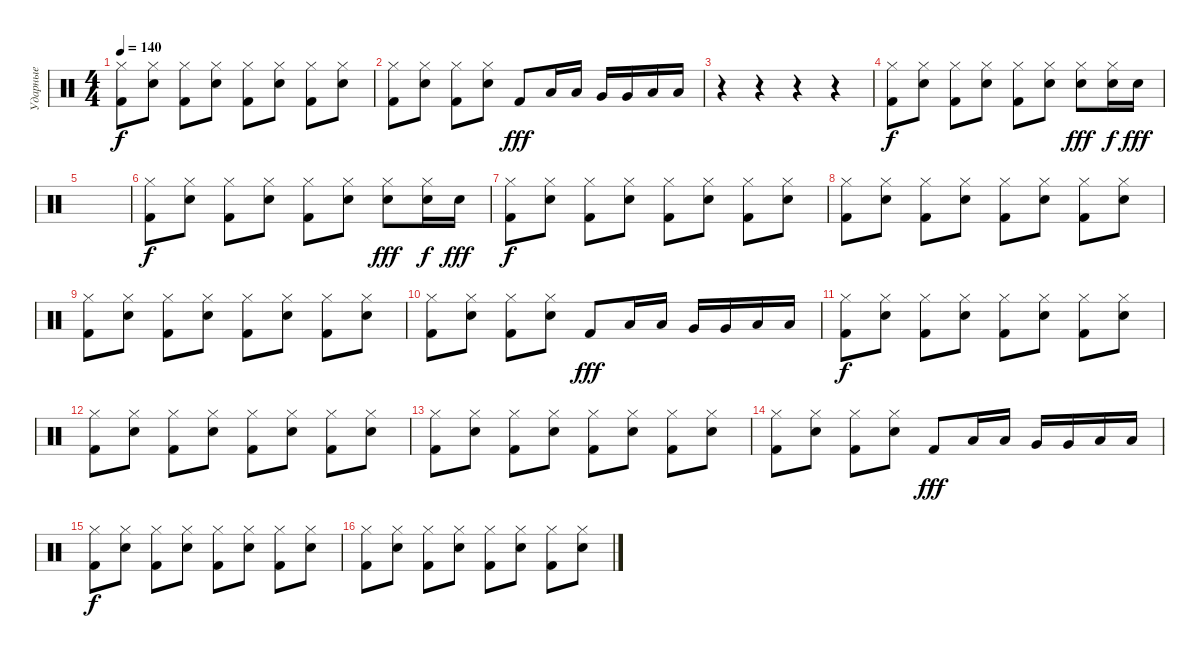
\track ("Ударные" "Ударные") {instrument percussion}
\staff {score}
\articulation defaults
\ts (4 4)
\tempo 140
\clef neutral
\ks c
("Hi-Hat (closed)" "Kick (hit) 2").8{dy f} ("Hi-Hat (closed)" "Electric Snare (hit)").8 ("Hi-Hat (closed)" "Kick (hit) 2").8 ("Hi-Hat (closed)" "Electric Snare (hit)").8 ("Hi-Hat (closed)" "Kick (hit) 2").8 ("Hi-Hat (closed)" "Electric Snare (hit)").8 ("Hi-Hat (closed)" "Kick (hit) 2").8 ("Hi-Hat (closed)" "Electric Snare (hit)").8 |
("Hi-Hat (closed)" "Kick (hit) 2").8 ("Hi-Hat (closed)" "Electric Snare (hit)").8 ("Hi-Hat (closed)" "Kick (hit) 2").8 ("Hi-Hat (closed)" "Electric Snare (hit)").8 "Kick (hit) 2".8{dy fff} "Low Tom (hit)".16 "Low Tom (hit)".16 "Very Low Tom (hit)".16 "Very Low Tom (hit)".16 "Low Floor Tom (hit)".16 "Low Floor Tom (hit)".16 |
r.4 r.4 r.4 r.4 |
("Hi-Hat (closed)" "Kick (hit) 2").8{dy f} ("Hi-Hat (closed)" "Electric Snare (hit)").8 ("Hi-Hat (closed)" "Kick (hit) 2").8 ("Hi-Hat (closed)" "Electric Snare (hit)").8 ("Hi-Hat (closed)" "Kick (hit) 2").8 ("Hi-Hat (closed)" "Electric Snare (hit)").8 ("Hi-Hat (closed)" "Electric Snare (hit)").8{dy fff} ("Hi-Hat (closed)" "Electric Snare (hit)").16{dy f} "Electric Snare (hit)".16{dy fff} |
|
("Hi-Hat (closed)" "Kick (hit) 2").8{dy f} ("Hi-Hat (closed)" "Electric Snare (hit)").8 ("Hi-Hat (closed)" "Kick (hit) 2").8 ("Hi-Hat (closed)" "Electric Snare (hit)").8 ("Hi-Hat (closed)" "Kick (hit) 2").8 ("Hi-Hat (closed)" "Electric Snare (hit)").8 ("Hi-Hat (closed)" "Electric Snare (hit)").8{dy fff} ("Hi-Hat (closed)" "Electric Snare (hit)").16{dy f} "Electric Snare (hit)".16{dy fff} |
("Hi-Hat (closed)" "Kick (hit) 2").8{dy f} ("Hi-Hat (closed)" "Electric Snare (hit)").8 ("Hi-Hat (closed)" "Kick (hit) 2").8 ("Hi-Hat (closed)" "Electric Snare (hit)").8 ("Hi-Hat (closed)" "Kick (hit) 2").8 ("Hi-Hat (closed)" "Electric Snare (hit)").8 ("Hi-Hat (closed)" "Kick (hit) 2").8 ("Hi-Hat (closed)" "Electric Snare (hit)").8 |
("Hi-Hat (closed)" "Kick (hit) 2").8 ("Hi-Hat (closed)" "Electric Snare (hit)").8 ("Hi-Hat (closed)" "Kick (hit) 2").8 ("Hi-Hat (closed)" "Electric Snare (hit)").8 ("Hi-Hat (closed)" "Kick (hit) 2").8 ("Hi-Hat (closed)" "Electric Snare (hit)").8 ("Hi-Hat (closed)" "Kick (hit) 2").8 ("Hi-Hat (closed)" "Electric Snare (hit)").8 |
("Hi-Hat (closed)" "Kick (hit) 2").8 ("Hi-Hat (closed)" "Electric Snare (hit)").8 ("Hi-Hat (closed)" "Kick (hit) 2").8 ("Hi-Hat (closed)" "Electric Snare (hit)").8 ("Hi-Hat (closed)" "Kick (hit) 2").8 ("Hi-Hat (closed)" "Electric Snare (hit)").8 ("Hi-Hat (closed)" "Kick (hit) 2").8 ("Hi-Hat (closed)" "Electric Snare (hit)").8 |
("Hi-Hat (closed)" "Kick (hit) 2").8 ("Hi-Hat (closed)" "Electric Snare (hit)").8 ("Hi-Hat (closed)" "Kick (hit) 2").8 ("Hi-Hat (closed)" "Electric Snare (hit)").8 "Kick (hit) 2".8{dy fff} "Low Tom (hit)".16 "Low Tom (hit)".16 "Very Low Tom (hit)".16 "Very Low Tom (hit)".16 "Low Floor Tom (hit)".16 "Low Floor Tom (hit)".16 |
("Hi-Hat (closed)" "Kick (hit) 2").8{dy f} ("Hi-Hat (closed)" "Electric Snare (hit)").8 ("Hi-Hat (closed)" "Kick (hit) 2").8 ("Hi-Hat (closed)" "Electric Snare (hit)").8 ("Hi-Hat (closed)" "Kick (hit) 2").8 ("Hi-Hat (closed)" "Electric Snare (hit)").8 ("Hi-Hat (closed)" "Kick (hit) 2").8 ("Hi-Hat (closed)" "Electric Snare (hit)").8 |
("Hi-Hat (closed)" "Kick (hit) 2").8 ("Hi-Hat (closed)" "Electric Snare (hit)").8 ("Hi-Hat (closed)" "Kick (hit) 2").8 ("Hi-Hat (closed)" "Electric Snare (hit)").8 ("Hi-Hat (closed)" "Kick (hit) 2").8 ("Hi-Hat (closed)" "Electric Snare (hit)").8 ("Hi-Hat (closed)" "Kick (hit) 2").8 ("Hi-Hat (closed)" "Electric Snare (hit)").8 |
("Hi-Hat (closed)" "Kick (hit) 2").8 ("Hi-Hat (closed)" "Electric Snare (hit)").8 ("Hi-Hat (closed)" "Kick (hit) 2").8 ("Hi-Hat (closed)" "Electric Snare (hit)").8 ("Hi-Hat (closed)" "Kick (hit) 2").8 ("Hi-Hat (closed)" "Electric Snare (hit)").8 ("Hi-Hat (closed)" "Kick (hit) 2").8 ("Hi-Hat (closed)" "Electric Snare (hit)").8 |
("Hi-Hat (closed)" "Kick (hit) 2").8 ("Hi-Hat (closed)" "Electric Snare (hit)").8 ("Hi-Hat (closed)" "Kick (hit) 2").8 ("Hi-Hat (closed)" "Electric Snare (hit)").8 "Kick (hit) 2".8{dy fff} "Low Tom (hit)".16 "Low Tom (hit)".16 "Very Low Tom (hit)".16 "Very Low Tom (hit)".16 "Low Floor Tom (hit)".16 "Low Floor Tom (hit)".16 |
("Hi-Hat (closed)" "Kick (hit) 2").8{dy f} ("Hi-Hat (closed)" "Electric Snare (hit)").8 ("Hi-Hat (closed)" "Kick (hit) 2").8 ("Hi-Hat (closed)" "Electric Snare (hit)").8 ("Hi-Hat (closed)" "Kick (hit) 2").8 ("Hi-Hat (closed)" "Electric Snare (hit)").8 ("Hi-Hat (closed)" "Kick (hit) 2").8 ("Hi-Hat (closed)" "Electric Snare (hit)").8 |
("Hi-Hat (closed)" "Kick (hit) 2").8 ("Hi-Hat (closed)" "Electric Snare (hit)").8 ("Hi-Hat (closed)" "Kick (hit) 2").8 ("Hi-Hat (closed)" "Electric Snare (hit)").8 ("Hi-Hat (closed)" "Kick (hit) 2").8 ("Hi-Hat (closed)" "Electric Snare (hit)").8 ("Hi-Hat (closed)" "Kick (hit) 2").8 ("Hi-Hat (closed)" "Electric Snare (hit)").8
